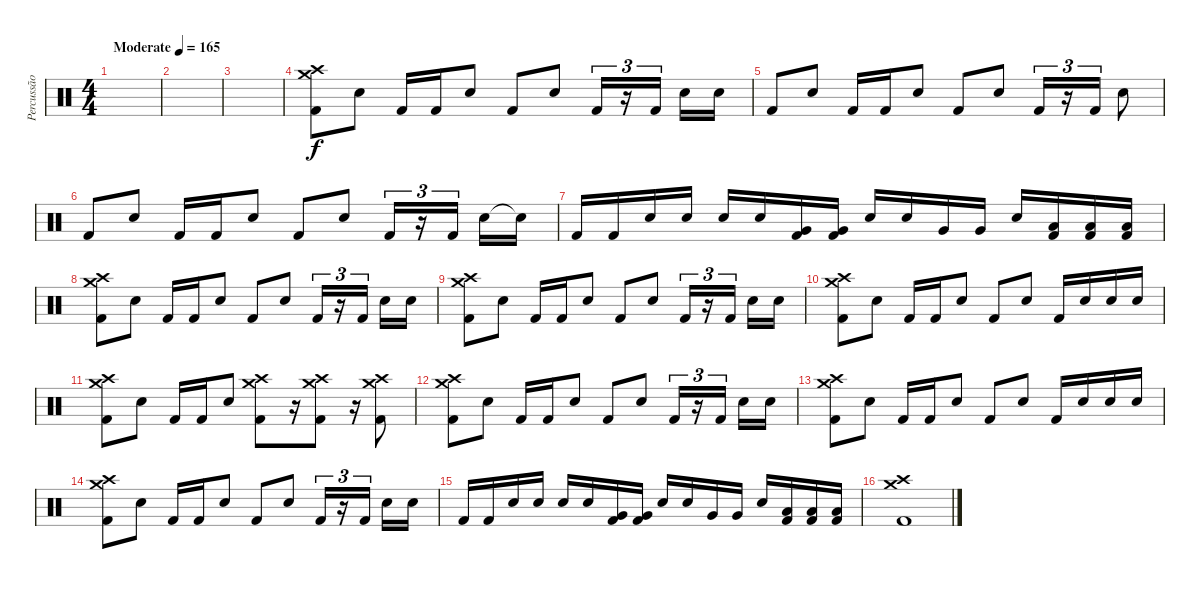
\track ("Percussão" "Percussão") {instrument percussion}
\staff {score}
\articulation defaults
\ts (4 4)
\tempo (165 "Moderate")
\clef neutral
\ks c
|
|
|
("Crash high (hit)" "Crash medium (hit)" "Kick (hit) 2").8 "Electric Snare (hit)".8 "Kick (hit) 2".16 "Kick (hit) 2".16 "Electric Snare (hit)".8 "Kick (hit) 2".8 "Electric Snare (hit)".8 "Kick (hit) 2".16{tu (3 2)} r.16{tu (3 2)} "Kick (hit) 2".16{tu (3 2) beam splitsecondary} "Electric Snare (hit)".16 "Electric Snare (hit)".16 |
"Kick (hit) 2".8 "Electric Snare (hit)".8 "Kick (hit) 2".16 "Kick (hit) 2".16 "Electric Snare (hit)".8 "Kick (hit) 2".8 "Electric Snare (hit)".8 "Kick (hit) 2".16{tu (3 2)} r.16{tu (3 2)} "Kick (hit) 2".16{tu (3 2)} "Electric Snare (hit)".8 |
"Kick (hit) 2".8 "Electric Snare (hit)".8 "Kick (hit) 2".16 "Kick (hit) 2".16 "Electric Snare (hit)".8 "Kick (hit) 2".8 "Electric Snare (hit)".8 "Kick (hit) 2".16{tu (3 2)} r.16{tu (3 2)} "Kick (hit) 2".16{tu (3 2) beam splitsecondary} "Electric Snare (hit)".16 "Electric Snare (hit)"{t}.16 |
"Kick (hit) 2".16 "Kick (hit) 2".16 "Electric Snare (hit)".16 "Electric Snare (hit)".16 "Electric Snare (hit)".16 "Electric Snare (hit)".16 ("Very Low Tom (hit)" "Kick (hit) 2").16 ("Very Low Tom (hit)" "Kick (hit) 2").16 "Electric Snare (hit)".16 "Electric Snare (hit)".16 "Very Low Tom (hit)".16 "Very Low Tom (hit)".16 "Electric Snare (hit)".16 ("Low Floor Tom (hit)" "Kick (hit) 2").16 ("Low Floor Tom (hit)" "Kick (hit) 2").16 ("Low Floor Tom (hit)" "Kick (hit) 2").16 |
("Crash high (hit)" "Crash medium (hit)" "Kick (hit) 2").8 "Electric Snare (hit)".8 "Kick (hit) 2".16 "Kick (hit) 2".16 "Electric Snare (hit)".8 "Kick (hit) 2".8 "Electric Snare (hit)".8 "Kick (hit) 2".16{tu (3 2)} r.16{tu (3 2)} "Kick (hit) 2".16{tu (3 2) beam splitsecondary} "Electric Snare (hit)".16 "Electric Snare (hit)".16 |
("Crash high (hit)" "Crash medium (hit)" "Kick (hit) 2").8 "Electric Snare (hit)".8 "Kick (hit) 2".16 "Kick (hit) 2".16 "Electric Snare (hit)".8 "Kick (hit) 2".8 "Electric Snare (hit)".8 "Kick (hit) 2".16{tu (3 2)} r.16{tu (3 2)} "Kick (hit) 2".16{tu (3 2) beam splitsecondary} "Electric Snare (hit)".16 "Electric Snare (hit)".16 |
("Crash high (hit)" "Crash medium (hit)" "Kick (hit) 2").8 "Electric Snare (hit)".8 "Kick (hit) 2".16 "Kick (hit) 2".16 "Electric Snare (hit)".8 "Kick (hit) 2".8 "Electric Snare (hit)".8 "Kick (hit) 2".16 "Electric Snare (hit)".16 "Electric Snare (hit)".16 "Electric Snare (hit)".16 |
("Crash high (hit)" "Crash medium (hit)" "Kick (hit) 2").8 "Electric Snare (hit)".8 "Kick (hit) 2".16 "Kick (hit) 2".16 "Electric Snare (hit)".8 ("Crash high (hit)" "Crash medium (hit)" "Kick (hit) 2").8 r.16 ("Crash high (hit)" "Crash medium (hit)" "Kick (hit) 2").8 r.16 ("Crash high (hit)" "Crash medium (hit)" "Kick (hit) 2").8 |
("Crash high (hit)" "Crash medium (hit)" "Kick (hit) 2").8 "Electric Snare (hit)".8 "Kick (hit) 2".16 "Kick (hit) 2".16 "Electric Snare (hit)".8 "Kick (hit) 2".8 "Electric Snare (hit)".8 "Kick (hit) 2".16{tu (3 2)} r.16{tu (3 2)} "Kick (hit) 2".16{tu (3 2) beam splitsecondary} "Electric Snare (hit)".16 "Electric Snare (hit)".16 |
("Crash high (hit)" "Crash medium (hit)" "Kick (hit) 2").8 "Electric Snare (hit)".8 "Kick (hit) 2".16 "Kick (hit) 2".16 "Electric Snare (hit)".8 "Kick (hit) 2".8 "Electric Snare (hit)".8 "Kick (hit) 2".16 "Electric Snare (hit)".16 "Electric Snare (hit)".16 "Electric Snare (hit)".16 |
("Crash high (hit)" "Crash medium (hit)" "Kick (hit) 2").8 "Electric Snare (hit)".8 "Kick (hit) 2".16 "Kick (hit) 2".16 "Electric Snare (hit)".8 "Kick (hit) 2".8 "Electric Snare (hit)".8 "Kick (hit) 2".16{tu (3 2)} r.16{tu (3 2)} "Kick (hit) 2".16{tu (3 2) beam splitsecondary} "Electric Snare (hit)".16 "Electric Snare (hit)".16 |
"Kick (hit) 2".16 "Kick (hit) 2".16 "Electric Snare (hit)".16 "Electric Snare (hit)".16 "Electric Snare (hit)".16 "Electric Snare (hit)".16 ("Very Low Tom (hit)" "Kick (hit) 2").16 ("Very Low Tom (hit)" "Kick (hit) 2").16 "Electric Snare (hit)".16 "Electric Snare (hit)".16 "Very Low Tom (hit)".16 "Very Low Tom (hit)".16 "Electric Snare (hit)".16 ("Low Floor Tom (hit)" "Kick (hit) 2").16 ("Low Floor Tom (hit)" "Kick (hit) 2").16 ("Low Floor Tom (hit)" "Kick (hit) 2").16 |
("Crash high (hit)" "Crash medium (hit)" "Kick (hit) 2").1
